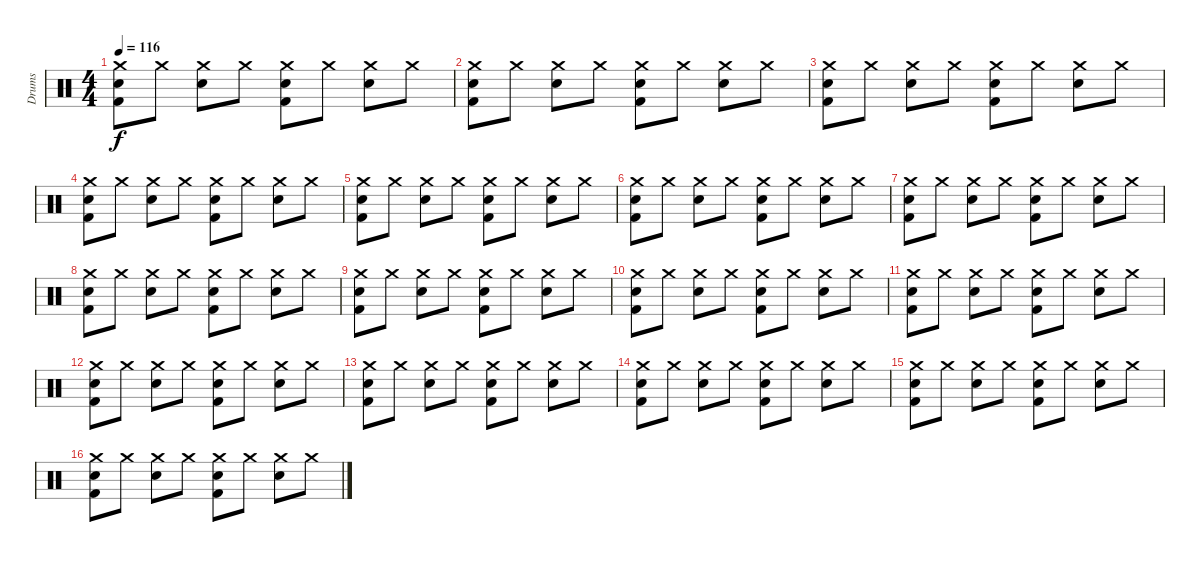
\track ("Drums" "Drums") {instrument percussion}
\staff {score}
\articulation defaults
\ts (4 4)
\tempo 116
\clef neutral
\ks c
("Crash medium (hit)" "Electric Snare (hit)" "Kick (hit) 2").8{dy f} "Crash medium (hit)".8 ("Crash medium (hit)" "Electric Snare (hit)").8 "Crash medium (hit)".8 ("Crash medium (hit)" "Electric Snare (hit)" "Kick (hit) 2").8 "Crash medium (hit)".8 ("Crash medium (hit)" "Electric Snare (hit)").8 "Crash medium (hit)".8 |
("Crash medium (hit)" "Electric Snare (hit)" "Kick (hit) 2").8 "Crash medium (hit)".8 ("Crash medium (hit)" "Electric Snare (hit)").8 "Crash medium (hit)".8 ("Crash medium (hit)" "Electric Snare (hit)" "Kick (hit) 2").8 "Crash medium (hit)".8 ("Crash medium (hit)" "Electric Snare (hit)").8 "Crash medium (hit)".8 |
("Crash medium (hit)" "Electric Snare (hit)" "Kick (hit) 2").8 "Crash medium (hit)".8 ("Crash medium (hit)" "Electric Snare (hit)").8 "Crash medium (hit)".8 ("Crash medium (hit)" "Electric Snare (hit)" "Kick (hit) 2").8 "Crash medium (hit)".8 ("Crash medium (hit)" "Electric Snare (hit)").8 "Crash medium (hit)".8 |
("Crash medium (hit)" "Electric Snare (hit)" "Kick (hit) 2").8 "Crash medium (hit)".8 ("Crash medium (hit)" "Electric Snare (hit)").8 "Crash medium (hit)".8 ("Crash medium (hit)" "Electric Snare (hit)" "Kick (hit) 2").8 "Crash medium (hit)".8 ("Crash medium (hit)" "Electric Snare (hit)").8 "Crash medium (hit)".8 |
("Crash medium (hit)" "Electric Snare (hit)" "Kick (hit) 2").8 "Crash medium (hit)".8 ("Crash medium (hit)" "Electric Snare (hit)").8 "Crash medium (hit)".8 ("Crash medium (hit)" "Electric Snare (hit)" "Kick (hit) 2").8 "Crash medium (hit)".8 ("Crash medium (hit)" "Electric Snare (hit)").8 "Crash medium (hit)".8 |
("Crash medium (hit)" "Electric Snare (hit)" "Kick (hit) 2").8 "Crash medium (hit)".8 ("Crash medium (hit)" "Electric Snare (hit)").8 "Crash medium (hit)".8 ("Crash medium (hit)" "Electric Snare (hit)" "Kick (hit) 2").8 "Crash medium (hit)".8 ("Crash medium (hit)" "Electric Snare (hit)").8 "Crash medium (hit)".8 |
("Crash medium (hit)" "Electric Snare (hit)" "Kick (hit) 2").8 "Crash medium (hit)".8 ("Crash medium (hit)" "Electric Snare (hit)").8 "Crash medium (hit)".8 ("Crash medium (hit)" "Electric Snare (hit)" "Kick (hit) 2").8 "Crash medium (hit)".8 ("Crash medium (hit)" "Electric Snare (hit)").8 "Crash medium (hit)".8 |
("Crash medium (hit)" "Electric Snare (hit)" "Kick (hit) 2").8 "Crash medium (hit)".8 ("Crash medium (hit)" "Electric Snare (hit)").8 "Crash medium (hit)".8 ("Crash medium (hit)" "Electric Snare (hit)" "Kick (hit) 2").8 "Crash medium (hit)".8 ("Crash medium (hit)" "Electric Snare (hit)").8 "Crash medium (hit)".8 |
("Crash medium (hit)" "Electric Snare (hit)" "Kick (hit) 2").8 "Crash medium (hit)".8 ("Crash medium (hit)" "Electric Snare (hit)").8 "Crash medium (hit)".8 ("Crash medium (hit)" "Electric Snare (hit)" "Kick (hit) 2").8 "Crash medium (hit)".8 ("Crash medium (hit)" "Electric Snare (hit)").8 "Crash medium (hit)".8 |
("Crash medium (hit)" "Electric Snare (hit)" "Kick (hit) 2").8 "Crash medium (hit)".8 ("Crash medium (hit)" "Electric Snare (hit)").8 "Crash medium (hit)".8 ("Crash medium (hit)" "Electric Snare (hit)" "Kick (hit) 2").8 "Crash medium (hit)".8 ("Crash medium (hit)" "Electric Snare (hit)").8 "Crash medium (hit)".8 |
("Crash medium (hit)" "Electric Snare (hit)" "Kick (hit) 2").8 "Crash medium (hit)".8 ("Crash medium (hit)" "Electric Snare (hit)").8 "Crash medium (hit)".8 ("Crash medium (hit)" "Electric Snare (hit)" "Kick (hit) 2").8 "Crash medium (hit)".8 ("Crash medium (hit)" "Electric Snare (hit)").8 "Crash medium (hit)".8 |
("Crash medium (hit)" "Electric Snare (hit)" "Kick (hit) 2").8 "Crash medium (hit)".8 ("Crash medium (hit)" "Electric Snare (hit)").8 "Crash medium (hit)".8 ("Crash medium (hit)" "Electric Snare (hit)" "Kick (hit) 2").8 "Crash medium (hit)".8 ("Crash medium (hit)" "Electric Snare (hit)").8 "Crash medium (hit)".8 |
("Crash medium (hit)" "Electric Snare (hit)" "Kick (hit) 2").8 "Crash medium (hit)".8 ("Crash medium (hit)" "Electric Snare (hit)").8 "Crash medium (hit)".8 ("Crash medium (hit)" "Electric Snare (hit)" "Kick (hit) 2").8 "Crash medium (hit)".8 ("Crash medium (hit)" "Electric Snare (hit)").8 "Crash medium (hit)".8 |
("Crash medium (hit)" "Electric Snare (hit)" "Kick (hit) 2").8 "Crash medium (hit)".8 ("Crash medium (hit)" "Electric Snare (hit)").8 "Crash medium (hit)".8 ("Crash medium (hit)" "Electric Snare (hit)" "Kick (hit) 2").8 "Crash medium (hit)".8 ("Crash medium (hit)" "Electric Snare (hit)").8 "Crash medium (hit)".8 |
("Crash medium (hit)" "Electric Snare (hit)" "Kick (hit) 2").8 "Crash medium (hit)".8 ("Crash medium (hit)" "Electric Snare (hit)").8 "Crash medium (hit)".8 ("Crash medium (hit)" "Electric Snare (hit)" "Kick (hit) 2").8 "Crash medium (hit)".8 ("Crash medium (hit)" "Electric Snare (hit)").8 "Crash medium (hit)".8 |
("Crash medium (hit)" "Electric Snare (hit)" "Kick (hit) 2").8 "Crash medium (hit)".8 ("Crash medium (hit)" "Electric Snare (hit)").8 "Crash medium (hit)".8 ("Crash medium (hit)" "Electric Snare (hit)" "Kick (hit) 2").8 "Crash medium (hit)".8 ("Crash medium (hit)" "Electric Snare (hit)").8 "Crash medium (hit)".8
